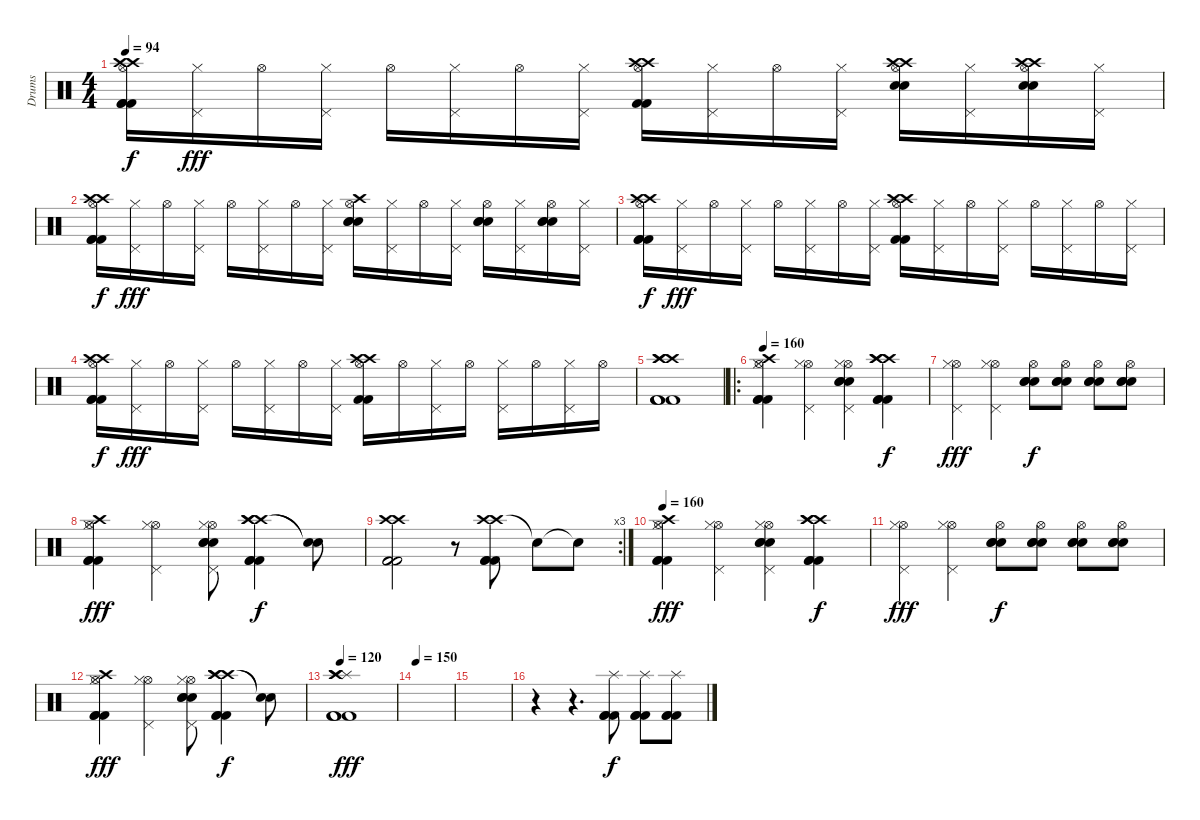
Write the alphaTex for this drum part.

\track ("Drums" "Drums") {instrument percussion}
\staff {score}
\articulation defaults
\ts (4 4)
\tempo 94
\clef neutral
\ks c
("Hi-Hat (open)" "Crash high (hit)" "Crash high (hit)" "Kick (hit) 2" "Kick (hit) 2" "Kick (hit) 2").16{dy f} ("Pedal Hi-Hat (hit)" "Hi-Hat (closed)").16{dy fff} "Hi-Hat (open)".16 ("Pedal Hi-Hat (hit)" "Hi-Hat (closed)").16 "Hi-Hat (open)".16 ("Pedal Hi-Hat (hit)" "Hi-Hat (closed)").16 "Hi-Hat (open)".16 ("Pedal Hi-Hat (hit)" "Hi-Hat (closed)").16 ("Hi-Hat (open)" "Crash high (hit)" "Crash high (hit)" "Kick (hit) 2" "Kick (hit) 2").16 ("Pedal Hi-Hat (hit)" "Hi-Hat (closed)").16 "Hi-Hat (open)".16 ("Pedal Hi-Hat (hit)" "Hi-Hat (closed)").16 ("Hi-Hat (open)" "Crash high (hit)" "Crash high (hit)" "Snare (hit) 2" "Snare (hit) 2").16 ("Pedal Hi-Hat (hit)" "Hi-Hat (closed)").16 ("Hi-Hat (open)" "Crash high (hit)" "Crash high (hit)" "Snare (hit) 2" "Snare (hit) 2").16 ("Pedal Hi-Hat (hit)" "Hi-Hat (closed)").16 |
("Hi-Hat (open)" "Crash high (hit)" "Crash high (hit)" "Kick (hit) 2" "Kick (hit) 2" "Kick (hit) 2").16{dy f} ("Pedal Hi-Hat (hit)" "Hi-Hat (closed)").16{dy fff} "Hi-Hat (open)".16 ("Pedal Hi-Hat (hit)" "Hi-Hat (closed)").16 "Hi-Hat (open)".16 ("Pedal Hi-Hat (hit)" "Hi-Hat (closed)").16 "Hi-Hat (open)".16 ("Pedal Hi-Hat (hit)" "Hi-Hat (closed)").16 ("Hi-Hat (open)" "Crash high (hit)" "Snare (hit) 2" "Snare (hit) 2" "Snare (hit) 2").16 ("Pedal Hi-Hat (hit)" "Hi-Hat (closed)").16 "Hi-Hat (open)".16 ("Pedal Hi-Hat (hit)" "Hi-Hat (closed)").16 ("Hi-Hat (open)" "Snare (hit) 2" "Snare (hit) 2" "Snare (hit) 2").16 ("Pedal Hi-Hat (hit)" "Hi-Hat (closed)").16 ("Hi-Hat (open)" "Snare (hit) 2" "Snare (hit) 2" "Snare (hit) 2").16 ("Pedal Hi-Hat (hit)" "Hi-Hat (closed)").16 |
("Hi-Hat (open)" "Crash high (hit)" "Crash high (hit)" "Kick (hit) 2" "Kick (hit) 2" "Kick (hit) 2").16{dy f} ("Pedal Hi-Hat (hit)" "Hi-Hat (closed)").16{dy fff} "Hi-Hat (open)".16 ("Pedal Hi-Hat (hit)" "Hi-Hat (closed)").16 "Hi-Hat (open)".16 ("Pedal Hi-Hat (hit)" "Hi-Hat (closed)").16 "Hi-Hat (open)".16 ("Pedal Hi-Hat (hit)" "Hi-Hat (closed)").16 ("Hi-Hat (open)" "Crash high (hit)" "Crash high (hit)" "Kick (hit) 2" "Kick (hit) 2").16 ("Pedal Hi-Hat (hit)" "Hi-Hat (closed)").16 "Hi-Hat (open)".16 ("Pedal Hi-Hat (hit)" "Hi-Hat (closed)").16 "Hi-Hat (open)".16 ("Pedal Hi-Hat (hit)" "Hi-Hat (closed)").16 "Hi-Hat (open)".16 ("Pedal Hi-Hat (hit)" "Hi-Hat (closed)").16 |
("Hi-Hat (open)" "Crash high (hit)" "Crash high (hit)" "Kick (hit) 2" "Kick (hit) 2" "Kick (hit) 2").16{dy f} ("Pedal Hi-Hat (hit)" "Hi-Hat (closed)").16{dy fff} "Hi-Hat (open)".16 ("Pedal Hi-Hat (hit)" "Hi-Hat (closed)").16 "Hi-Hat (open)".16 ("Pedal Hi-Hat (hit)" "Hi-Hat (closed)").16 "Hi-Hat (open)".16 ("Pedal Hi-Hat (hit)" "Hi-Hat (closed)").16 ("Hi-Hat (open)" "Crash high (hit)" "Crash high (hit)" "Kick (hit) 2" "Kick (hit) 2").16 "Hi-Hat (open)".16 ("Pedal Hi-Hat (hit)" "Hi-Hat (closed)").16 "Hi-Hat (open)".16 ("Pedal Hi-Hat (hit)" "Hi-Hat (closed)").16 "Hi-Hat (open)".16 ("Pedal Hi-Hat (hit)" "Hi-Hat (closed)").16 "Hi-Hat (open)".16 |
("Crash high (hit)" "Crash high (hit)" "Crash high (hit)" "Kick (hit) 2" "Kick (hit) 2" "Kick (hit) 2").1 |
\ro
\tempo 160
("Hi-Hat (open)" "Crash high (hit)" "Hi-Hat (closed)" "Kick (hit) 2" "Kick (hit) 2" "Kick (hit) 2").4 ("Hi-Hat (open)" "Pedal Hi-Hat (hit)" "Hi-Hat (closed)").4 ("Hi-Hat (open)" "Pedal Hi-Hat (hit)" "Hi-Hat (closed)" "Snare (hit) 2" "Snare (hit) 2" "Snare (hit) 2").4 ("Crash high (hit)" "Crash high (hit)" "Crash high (hit)" "Kick (hit) 2" "Kick (hit) 2" "Kick (hit) 2").4{dy f} |
("Hi-Hat (open)" "Pedal Hi-Hat (hit)" "Hi-Hat (closed)").4{dy fff} ("Hi-Hat (open)" "Pedal Hi-Hat (hit)" "Hi-Hat (closed)").4 ("Hi-Hat (open)" "Snare (hit) 2" "Snare (hit) 2" "Snare (hit) 2").8{dy f} ("Hi-Hat (open)" "Snare (hit) 2" "Snare (hit) 2" "Snare (hit) 2").8 ("Hi-Hat (open)" "Snare (hit) 2" "Snare (hit) 2" "Snare (hit) 2").8 ("Hi-Hat (open)" "Snare (hit) 2" "Snare (hit) 2" "Snare (hit) 2").8 |
("Hi-Hat (open)" "Crash high (hit)" "Hi-Hat (closed)" "Kick (hit) 2" "Kick (hit) 2" "Kick (hit) 2").4{dy fff} ("Hi-Hat (open)" "Pedal Hi-Hat (hit)" "Hi-Hat (closed)").4 ("Hi-Hat (open)" "Pedal Hi-Hat (hit)" "Hi-Hat (closed)" "Snare (hit) 2" "Snare (hit) 2" "Snare (hit) 2").8 ("Crash high (hit)" "Crash high (hit)" "Crash high (hit)" "Kick (hit) 2" "Kick (hit) 2" "Kick (hit) 2").4{dy f} ("Snare (hit)"{t} "Snare (hit)"{t}).8 |
\rc 3
("Crash high (hit)" "Crash high (hit)" "Kick (hit) 2" "Kick (hit) 2" "Kick (hit) 2").2 r.8 ("Crash high (hit)" "Crash high (hit)" "Kick (hit) 2" "Kick (hit) 2" "Kick (hit) 2").8 "Snare (hit)"{t}.8 "Snare (hit)"{t}.8 |
\tempo 160
("Hi-Hat (open)" "Crash high (hit)" "Hi-Hat (closed)" "Kick (hit) 2" "Kick (hit) 2" "Kick (hit) 2").4{dy fff} ("Hi-Hat (open)" "Pedal Hi-Hat (hit)" "Hi-Hat (closed)").4 ("Hi-Hat (open)" "Pedal Hi-Hat (hit)" "Hi-Hat (closed)" "Snare (hit) 2" "Snare (hit) 2" "Snare (hit) 2").4 ("Crash high (hit)" "Crash high (hit)" "Crash high (hit)" "Kick (hit) 2" "Kick (hit) 2" "Kick (hit) 2").4{dy f} |
("Hi-Hat (open)" "Pedal Hi-Hat (hit)" "Hi-Hat (closed)").4{dy fff} ("Hi-Hat (open)" "Pedal Hi-Hat (hit)" "Hi-Hat (closed)").4 ("Hi-Hat (open)" "Snare (hit) 2" "Snare (hit) 2" "Snare (hit) 2").8{dy f} ("Hi-Hat (open)" "Snare (hit) 2" "Snare (hit) 2" "Snare (hit) 2").8 ("Hi-Hat (open)" "Snare (hit) 2" "Snare (hit) 2" "Snare (hit) 2").8 ("Hi-Hat (open)" "Snare (hit) 2" "Snare (hit) 2" "Snare (hit) 2").8 |
("Hi-Hat (open)" "Crash high (hit)" "Hi-Hat (closed)" "Kick (hit) 2" "Kick (hit) 2" "Kick (hit) 2").4{dy fff} ("Hi-Hat (open)" "Pedal Hi-Hat (hit)" "Hi-Hat (closed)").4 ("Hi-Hat (open)" "Pedal Hi-Hat (hit)" "Hi-Hat (closed)" "Snare (hit) 2" "Snare (hit) 2" "Snare (hit) 2").8 ("Crash high (hit)" "Crash high (hit)" "Crash high (hit)" "Kick (hit) 2" "Kick (hit) 2" "Kick (hit) 2").4{dy f} ("Snare (hit)"{t} "Snare (hit)"{t}).8 |
\tempo 120
("Splash (hit)" "Crash high (hit)" "Crash high (hit)" "Kick (hit) 2" "Kick (hit) 2" "Kick (hit) 2").1{dy fff} |
\tempo 150
|
|
r.4 r.4{d} ("Splash (hit)" "Kick (hit) 2" "Kick (hit) 2" "Kick (hit) 2").8{dy f} ("Splash (hit)" "Kick (hit) 2" "Kick (hit) 2" "Kick (hit) 2").8 ("Splash (hit)" "Kick (hit) 2" "Kick (hit) 2" "Kick (hit) 2").8
